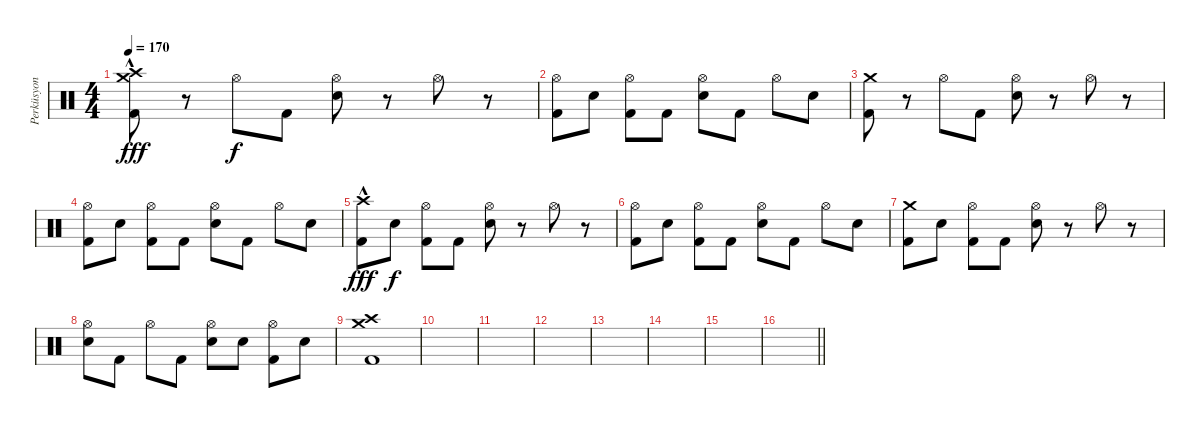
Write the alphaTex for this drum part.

\track ("Perküsyon" "Perküsyon") {instrument percussion}
\staff {score}
\articulation defaults
\ts (4 4)
\tempo 170
\clef neutral
\ks c
("Crash high (hit)" "Crash medium (hit)" "Kick (hit) 2"{hac}).8{dy fff} r.8 "Hi-Hat (open)".8{dy f} "Kick (hit) 2".8 ("Hi-Hat (open)" "Snare (hit) 2").8 r.8 "Hi-Hat (open)".8 r.8 |
("Hi-Hat (open)" "Kick (hit) 2").8 "Snare (hit) 2".8 ("Hi-Hat (open)" "Kick (hit) 2").8 "Kick (hit) 2".8 ("Hi-Hat (open)" "Snare (hit) 2").8 "Kick (hit) 2".8 "Hi-Hat (open)".8 "Snare (hit) 2".8 |
("Crash medium (hit)" "Kick (hit) 2").8 r.8 "Hi-Hat (open)".8 "Kick (hit) 2".8 ("Hi-Hat (open)" "Snare (hit) 2").8 r.8 "Hi-Hat (open)".8 r.8 |
("Hi-Hat (open)" "Kick (hit) 2").8 "Snare (hit) 2".8 ("Hi-Hat (open)" "Kick (hit) 2").8 "Kick (hit) 2".8 ("Hi-Hat (open)" "Snare (hit) 2").8 "Kick (hit) 2".8 "Hi-Hat (open)".8 "Snare (hit) 2".8 |
("Crash high (hit)" "Kick (hit) 2"{hac}).8{dy fff} "Snare (hit) 2".8{dy f} ("Hi-Hat (open)" "Kick (hit) 2").8 "Kick (hit) 2".8 ("Hi-Hat (open)" "Snare (hit) 2").8 r.8 "Hi-Hat (open)".8 r.8 |
("Hi-Hat (open)" "Kick (hit) 2").8 "Snare (hit) 2".8 ("Hi-Hat (open)" "Kick (hit) 2").8 "Kick (hit) 2".8 ("Hi-Hat (open)" "Snare (hit) 2").8 "Kick (hit) 2".8 "Hi-Hat (open)".8 "Snare (hit) 2".8 |
("Crash medium (hit)" "Kick (hit) 2").8 "Snare (hit) 2".8 ("Hi-Hat (open)" "Kick (hit) 2").8 "Kick (hit) 2".8 ("Hi-Hat (open)" "Snare (hit) 2").8 r.8 "Hi-Hat (open)".8 r.8 |
("Hi-Hat (open)" "Snare (hit) 2").8 "Kick (hit) 2".8 "Hi-Hat (open)".8 "Kick (hit) 2".8 ("Hi-Hat (open)" "Snare (hit) 2").8 "Snare (hit) 2".8 ("Hi-Hat (open)" "Kick (hit) 2").8 "Snare (hit) 2".8 |
("Crash high (hit)" "Crash medium (hit)" "Kick (hit) 2").1 |
|
|
|
|
|
|
\barLineRight lightlight
